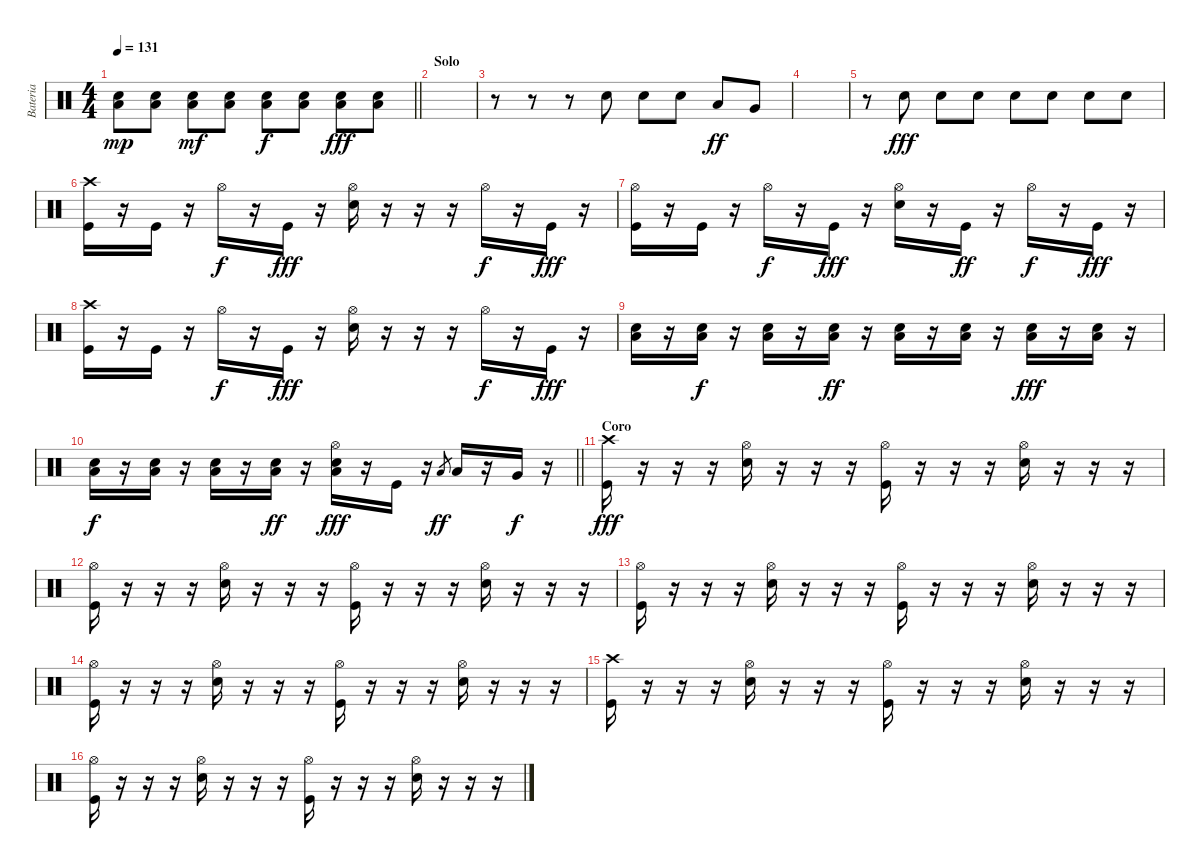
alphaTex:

\track ("Bateria" "Bateria") {instrument percussion}
\staff {score}
\articulation defaults
\ts (4 4)
\tempo 131
\clef neutral
\barLineRight lightlight
\ks c
("Electric Snare (hit)" "Low Floor Tom (hit)").8{dy mp} ("Electric Snare (hit)" "Low Floor Tom (hit)").8 ("Electric Snare (hit)" "Low Floor Tom (hit)").8{dy mf} ("Electric Snare (hit)" "Low Floor Tom (hit)").8 ("Electric Snare (hit)" "Low Floor Tom (hit)").8{dy f} ("Electric Snare (hit)" "Low Floor Tom (hit)").8 ("Electric Snare (hit)" "Low Floor Tom (hit)").8{dy fff} ("Electric Snare (hit)" "Low Floor Tom (hit)").8 |
\section ("" "Solo")
|
r.8 r.8 r.8 "Electric Snare (hit)".8 "Electric Snare (hit)".8 "Electric Snare (hit)".8 "Low Tom (hit)".8{dy ff} "Very Low Tom (hit)".8 |
|
r.8 "Electric Snare (hit)".8{dy fff} "Electric Snare (hit)".8 "Electric Snare (hit)".8 "Electric Snare (hit)".8 "Electric Snare (hit)".8 "Electric Snare (hit)".8 "Electric Snare (hit)".8 |
("Crash high (hit)" "Kick (hit)").16 r.16 "Kick (hit)".16 r.16 "Hi-Hat (open)".16{dy f} r.16 "Kick (hit)".16{dy fff} r.16 ("Hi-Hat (open)" "Electric Snare (hit)").16 r.16 r.16 r.16 "Hi-Hat (open)".16{dy f} r.16 "Kick (hit)".16{dy fff} r.16 |
("Hi-Hat (open)" "Kick (hit)").16 r.16 "Kick (hit)".16 r.16 "Hi-Hat (open)".16{dy f} r.16 "Kick (hit)".16{dy fff} r.16 ("Hi-Hat (open)" "Electric Snare (hit)").16 r.16 "Kick (hit)".16{dy ff} r.16 "Hi-Hat (open)".16{dy f} r.16 "Kick (hit)".16{dy fff} r.16 |
("Crash high (hit)" "Kick (hit)").16 r.16 "Kick (hit)".16 r.16 "Hi-Hat (open)".16{dy f} r.16 "Kick (hit)".16{dy fff} r.16 ("Hi-Hat (open)" "Electric Snare (hit)").16 r.16 r.16 r.16 "Hi-Hat (open)".16{dy f} r.16 "Kick (hit)".16{dy fff} r.16 |
("Electric Snare (hit)" "Low Floor Tom (hit)").16 r.16 ("Electric Snare (hit)" "Low Floor Tom (hit)").16{dy f} r.16 ("Electric Snare (hit)" "Low Floor Tom (hit)").16 r.16 ("Electric Snare (hit)" "Low Floor Tom (hit)").16{dy ff} r.16 ("Electric Snare (hit)" "Low Floor Tom (hit)").16 r.16 ("Electric Snare (hit)" "Low Floor Tom (hit)").16 r.16 ("Electric Snare (hit)" "Low Floor Tom (hit)").16{dy fff} r.16 ("Electric Snare (hit)" "Low Floor Tom (hit)").16 r.16 |
\barLineRight lightlight
("Electric Snare (hit)" "Low Floor Tom (hit)").16{dy f} r.16 ("Electric Snare (hit)" "Low Floor Tom (hit)").16 r.16 ("Electric Snare (hit)" "Low Floor Tom (hit)").16 r.16 ("Electric Snare (hit)" "Low Floor Tom (hit)").16{dy ff} r.16 ("Hi-Hat (open)" "Low Floor Tom (hit)" "Electric Snare (hit)").16{dy fff} r.16 "Kick (hit)".16 r.16 "Low Tom (hit)".8{gr dy ff} "Low Tom (hit)".16 r.16 "Very Low Tom (hit)".16{dy f} r.16 |
\section ("" "Coro")
("Crash high (hit)" "Kick (hit)").16{dy fff} r.16 r.16 r.16 ("Hi-Hat (open)" "Electric Snare (hit)").16 r.16 r.16 r.16 ("Hi-Hat (open)" "Kick (hit)").16 r.16 r.16 r.16 ("Hi-Hat (open)" "Electric Snare (hit)").16 r.16 r.16 r.16 |
("Hi-Hat (open)" "Kick (hit)").16 r.16 r.16 r.16 ("Hi-Hat (open)" "Electric Snare (hit)").16 r.16 r.16 r.16 ("Hi-Hat (open)" "Kick (hit)").16 r.16 r.16 r.16 ("Hi-Hat (open)" "Electric Snare (hit)").16 r.16 r.16 r.16 |
("Hi-Hat (open)" "Kick (hit)").16 r.16 r.16 r.16 ("Hi-Hat (open)" "Electric Snare (hit)").16 r.16 r.16 r.16 ("Hi-Hat (open)" "Kick (hit)").16 r.16 r.16 r.16 ("Hi-Hat (open)" "Electric Snare (hit)").16 r.16 r.16 r.16 |
("Hi-Hat (open)" "Kick (hit)").16 r.16 r.16 r.16 ("Hi-Hat (open)" "Electric Snare (hit)").16 r.16 r.16 r.16 ("Hi-Hat (open)" "Kick (hit)").16 r.16 r.16 r.16 ("Hi-Hat (open)" "Electric Snare (hit)").16 r.16 r.16 r.16 |
("Crash high (hit)" "Kick (hit)").16 r.16 r.16 r.16 ("Hi-Hat (open)" "Electric Snare (hit)").16 r.16 r.16 r.16 ("Hi-Hat (open)" "Kick (hit)").16 r.16 r.16 r.16 ("Hi-Hat (open)" "Electric Snare (hit)").16 r.16 r.16 r.16 |
("Hi-Hat (open)" "Kick (hit)").16 r.16 r.16 r.16 ("Hi-Hat (open)" "Electric Snare (hit)").16 r.16 r.16 r.16 ("Hi-Hat (open)" "Kick (hit)").16 r.16 r.16 r.16 ("Hi-Hat (open)" "Electric Snare (hit)").16 r.16 r.16 r.16
